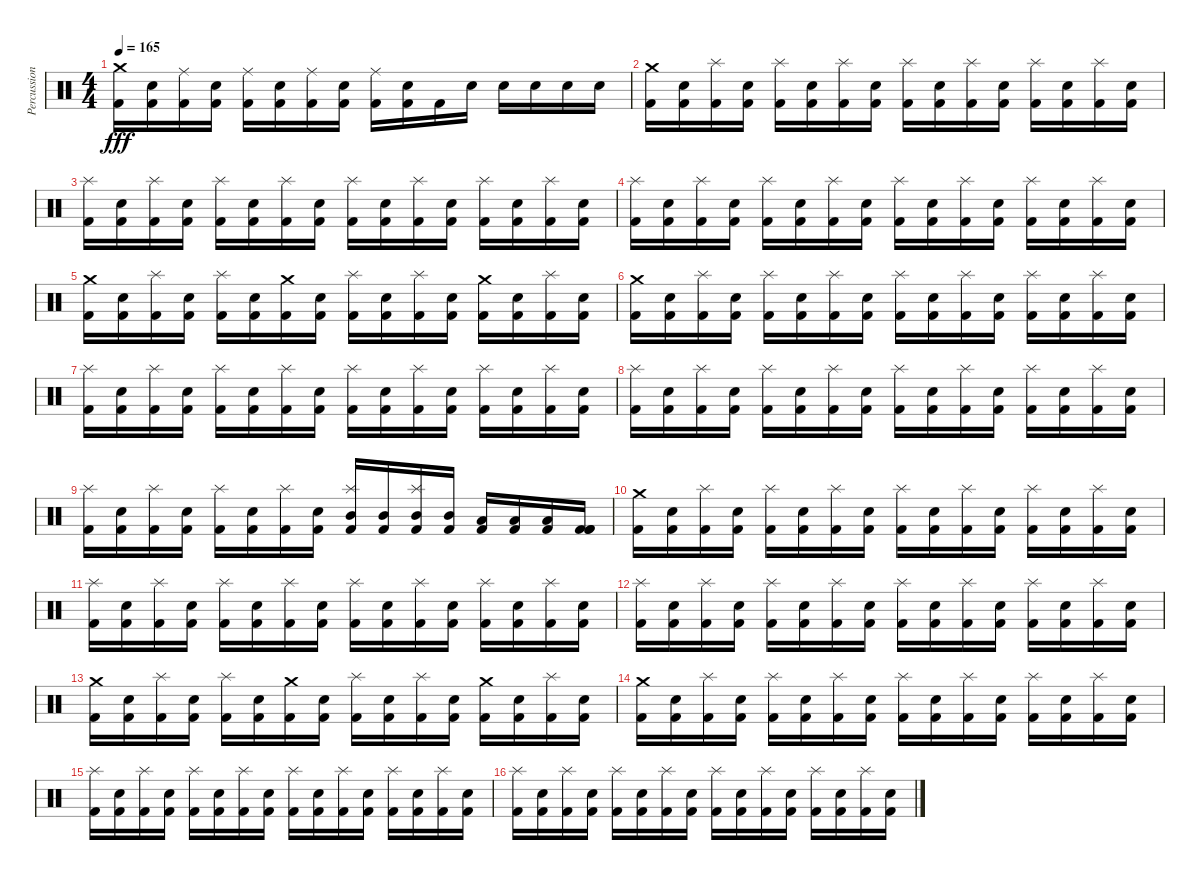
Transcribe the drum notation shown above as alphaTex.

\track ("Percussions" "Percussion") {instrument percussion}
\staff {score}
\articulation defaults
\ts (4 4)
\tempo 165
\clef neutral
\ks c
("Crash medium (hit)" "Kick (hit) 2").16{dy fff} ("Electric Snare (hit)" "Kick (hit) 2").16 ("Ride (middle)" "Kick (hit) 2").16 ("Electric Snare (hit)" "Kick (hit) 2").16 ("Ride (middle)" "Kick (hit) 2").16 ("Electric Snare (hit)" "Kick (hit) 2").16 ("Ride (middle)" "Kick (hit) 2").16 ("Electric Snare (hit)" "Kick (hit) 2").16 ("Ride (middle)" "Kick (hit) 2").16 ("Electric Snare (hit)" "Kick (hit) 2").16 "Kick (hit) 2".16 "Electric Snare (hit)".16 "Electric Snare (hit)".16 "Electric Snare (hit)".16 "Electric Snare (hit)".16 "Electric Snare (hit)".16 |
("Crash medium (hit)" "Kick (hit) 2").16 ("Electric Snare (hit)" "Kick (hit) 2").16 ("Splash (hit)" "Kick (hit) 2").16 ("Electric Snare (hit)" "Kick (hit) 2").16 ("Splash (hit)" "Kick (hit) 2").16 ("Electric Snare (hit)" "Kick (hit) 2").16 ("Splash (hit)" "Kick (hit) 2").16 ("Electric Snare (hit)" "Kick (hit) 2").16 ("Splash (hit)" "Kick (hit) 2").16 ("Electric Snare (hit)" "Kick (hit) 2").16 ("Splash (hit)" "Kick (hit) 2").16 ("Electric Snare (hit)" "Kick (hit) 2").16 ("Splash (hit)" "Kick (hit) 2").16 ("Electric Snare (hit)" "Kick (hit) 2").16 ("Splash (hit)" "Kick (hit) 2").16 ("Electric Snare (hit)" "Kick (hit) 2").16 |
("Splash (hit)" "Kick (hit) 2").16 ("Electric Snare (hit)" "Kick (hit) 2").16 ("Splash (hit)" "Kick (hit) 2").16 ("Electric Snare (hit)" "Kick (hit) 2").16 ("Splash (hit)" "Kick (hit) 2").16 ("Electric Snare (hit)" "Kick (hit) 2").16 ("Splash (hit)" "Kick (hit) 2").16 ("Electric Snare (hit)" "Kick (hit) 2").16 ("Splash (hit)" "Kick (hit) 2").16 ("Electric Snare (hit)" "Kick (hit) 2").16 ("Splash (hit)" "Kick (hit) 2").16 ("Electric Snare (hit)" "Kick (hit) 2").16 ("Splash (hit)" "Kick (hit) 2").16 ("Electric Snare (hit)" "Kick (hit) 2").16 ("Splash (hit)" "Kick (hit) 2").16 ("Electric Snare (hit)" "Kick (hit) 2").16 |
("Splash (hit)" "Kick (hit) 2").16 ("Electric Snare (hit)" "Kick (hit) 2").16 ("Splash (hit)" "Kick (hit) 2").16 ("Electric Snare (hit)" "Kick (hit) 2").16 ("Splash (hit)" "Kick (hit) 2").16 ("Electric Snare (hit)" "Kick (hit) 2").16 ("Splash (hit)" "Kick (hit) 2").16 ("Electric Snare (hit)" "Kick (hit) 2").16 ("Splash (hit)" "Kick (hit) 2").16 ("Electric Snare (hit)" "Kick (hit) 2").16 ("Splash (hit)" "Kick (hit) 2").16 ("Electric Snare (hit)" "Kick (hit) 2").16 ("Splash (hit)" "Kick (hit) 2").16 ("Electric Snare (hit)" "Kick (hit) 2").16 ("Splash (hit)" "Kick (hit) 2").16 ("Electric Snare (hit)" "Kick (hit) 2").16 |
("Crash medium (hit)" "Kick (hit) 2").16 ("Electric Snare (hit)" "Kick (hit) 2").16 ("Splash (hit)" "Kick (hit) 2").16 ("Electric Snare (hit)" "Kick (hit) 2").16 ("Splash (hit)" "Kick (hit) 2").16 ("Electric Snare (hit)" "Kick (hit) 2").16 ("Crash medium (hit)" "Kick (hit) 2").16 ("Electric Snare (hit)" "Kick (hit) 2").16 ("Splash (hit)" "Kick (hit) 2").16 ("Electric Snare (hit)" "Kick (hit) 2").16 ("Splash (hit)" "Kick (hit) 2").16 ("Electric Snare (hit)" "Kick (hit) 2").16 ("Crash medium (hit)" "Kick (hit) 2").16 ("Electric Snare (hit)" "Kick (hit) 2").16 ("Splash (hit)" "Kick (hit) 2").16 ("Electric Snare (hit)" "Kick (hit) 2").16 |
("Crash medium (hit)" "Kick (hit) 2").16 ("Electric Snare (hit)" "Kick (hit) 2").16 ("Splash (hit)" "Kick (hit) 2").16 ("Electric Snare (hit)" "Kick (hit) 2").16 ("Splash (hit)" "Kick (hit) 2").16 ("Electric Snare (hit)" "Kick (hit) 2").16 ("Splash (hit)" "Kick (hit) 2").16 ("Electric Snare (hit)" "Kick (hit) 2").16 ("Splash (hit)" "Kick (hit) 2").16 ("Electric Snare (hit)" "Kick (hit) 2").16 ("Splash (hit)" "Kick (hit) 2").16 ("Electric Snare (hit)" "Kick (hit) 2").16 ("Splash (hit)" "Kick (hit) 2").16 ("Electric Snare (hit)" "Kick (hit) 2").16 ("Splash (hit)" "Kick (hit) 2").16 ("Electric Snare (hit)" "Kick (hit) 2").16 |
("Splash (hit)" "Kick (hit) 2").16 ("Electric Snare (hit)" "Kick (hit) 2").16 ("Splash (hit)" "Kick (hit) 2").16 ("Electric Snare (hit)" "Kick (hit) 2").16 ("Splash (hit)" "Kick (hit) 2").16 ("Electric Snare (hit)" "Kick (hit) 2").16 ("Splash (hit)" "Kick (hit) 2").16 ("Electric Snare (hit)" "Kick (hit) 2").16 ("Splash (hit)" "Kick (hit) 2").16 ("Electric Snare (hit)" "Kick (hit) 2").16 ("Splash (hit)" "Kick (hit) 2").16 ("Electric Snare (hit)" "Kick (hit) 2").16 ("Splash (hit)" "Kick (hit) 2").16 ("Electric Snare (hit)" "Kick (hit) 2").16 ("Splash (hit)" "Kick (hit) 2").16 ("Electric Snare (hit)" "Kick (hit) 2").16 |
("Splash (hit)" "Kick (hit) 2").16 ("Electric Snare (hit)" "Kick (hit) 2").16 ("Splash (hit)" "Kick (hit) 2").16 ("Electric Snare (hit)" "Kick (hit) 2").16 ("Splash (hit)" "Kick (hit) 2").16 ("Electric Snare (hit)" "Kick (hit) 2").16 ("Splash (hit)" "Kick (hit) 2").16 ("Electric Snare (hit)" "Kick (hit) 2").16 ("Splash (hit)" "Kick (hit) 2").16 ("Electric Snare (hit)" "Kick (hit) 2").16 ("Splash (hit)" "Kick (hit) 2").16 ("Electric Snare (hit)" "Kick (hit) 2").16 ("Splash (hit)" "Kick (hit) 2").16 ("Electric Snare (hit)" "Kick (hit) 2").16 ("Splash (hit)" "Kick (hit) 2").16 ("Electric Snare (hit)" "Kick (hit) 2").16 |
("Splash (hit)" "Kick (hit) 2").16 ("Electric Snare (hit)" "Kick (hit) 2").16 ("Splash (hit)" "Kick (hit) 2").16 ("Electric Snare (hit)" "Kick (hit) 2").16 ("Splash (hit)" "Kick (hit) 2").16 ("Electric Snare (hit)" "Kick (hit) 2").16 ("Splash (hit)" "Kick (hit) 2").16 ("Electric Snare (hit)" "Kick (hit) 2").16 ("Splash (hit)" "Mid Tom (hit)" "Kick (hit) 2").16 ("Mid Tom (hit)" "Kick (hit) 2").16 ("Splash (hit)" "Mid Tom (hit)" "Kick (hit) 2").16 ("Mid Tom (hit)" "Kick (hit) 2").16 ("Low Tom (hit)" "Kick (hit) 2").16 ("Low Tom (hit)" "Kick (hit) 2").16 ("Low Tom (hit)" "Kick (hit) 2").16 ("Kick (hit) 2" "Kick (hit) 2" "Kick (hit) 2").16 |
("Crash medium (hit)" "Kick (hit) 2").16 ("Electric Snare (hit)" "Kick (hit) 2").16 ("Splash (hit)" "Kick (hit) 2").16 ("Electric Snare (hit)" "Kick (hit) 2").16 ("Splash (hit)" "Kick (hit) 2").16 ("Electric Snare (hit)" "Kick (hit) 2").16 ("Splash (hit)" "Kick (hit) 2").16 ("Electric Snare (hit)" "Kick (hit) 2").16 ("Splash (hit)" "Kick (hit) 2").16 ("Electric Snare (hit)" "Kick (hit) 2").16 ("Splash (hit)" "Kick (hit) 2").16 ("Electric Snare (hit)" "Kick (hit) 2").16 ("Splash (hit)" "Kick (hit) 2").16 ("Electric Snare (hit)" "Kick (hit) 2").16 ("Splash (hit)" "Kick (hit) 2").16 ("Electric Snare (hit)" "Kick (hit) 2").16 |
("Splash (hit)" "Kick (hit) 2").16 ("Electric Snare (hit)" "Kick (hit) 2").16 ("Splash (hit)" "Kick (hit) 2").16 ("Electric Snare (hit)" "Kick (hit) 2").16 ("Splash (hit)" "Kick (hit) 2").16 ("Electric Snare (hit)" "Kick (hit) 2").16 ("Splash (hit)" "Kick (hit) 2").16 ("Electric Snare (hit)" "Kick (hit) 2").16 ("Splash (hit)" "Kick (hit) 2").16 ("Electric Snare (hit)" "Kick (hit) 2").16 ("Splash (hit)" "Kick (hit) 2").16 ("Electric Snare (hit)" "Kick (hit) 2").16 ("Splash (hit)" "Kick (hit) 2").16 ("Electric Snare (hit)" "Kick (hit) 2").16 ("Splash (hit)" "Kick (hit) 2").16 ("Electric Snare (hit)" "Kick (hit) 2").16 |
("Splash (hit)" "Kick (hit) 2").16 ("Electric Snare (hit)" "Kick (hit) 2").16 ("Splash (hit)" "Kick (hit) 2").16 ("Electric Snare (hit)" "Kick (hit) 2").16 ("Splash (hit)" "Kick (hit) 2").16 ("Electric Snare (hit)" "Kick (hit) 2").16 ("Splash (hit)" "Kick (hit) 2").16 ("Electric Snare (hit)" "Kick (hit) 2").16 ("Splash (hit)" "Kick (hit) 2").16 ("Electric Snare (hit)" "Kick (hit) 2").16 ("Splash (hit)" "Kick (hit) 2").16 ("Electric Snare (hit)" "Kick (hit) 2").16 ("Splash (hit)" "Kick (hit) 2").16 ("Electric Snare (hit)" "Kick (hit) 2").16 ("Splash (hit)" "Kick (hit) 2").16 ("Electric Snare (hit)" "Kick (hit) 2").16 |
("Crash medium (hit)" "Kick (hit) 2").16 ("Electric Snare (hit)" "Kick (hit) 2").16 ("Splash (hit)" "Kick (hit) 2").16 ("Electric Snare (hit)" "Kick (hit) 2").16 ("Splash (hit)" "Kick (hit) 2").16 ("Electric Snare (hit)" "Kick (hit) 2").16 ("Crash medium (hit)" "Kick (hit) 2").16 ("Electric Snare (hit)" "Kick (hit) 2").16 ("Splash (hit)" "Kick (hit) 2").16 ("Electric Snare (hit)" "Kick (hit) 2").16 ("Splash (hit)" "Kick (hit) 2").16 ("Electric Snare (hit)" "Kick (hit) 2").16 ("Crash medium (hit)" "Kick (hit) 2").16 ("Electric Snare (hit)" "Kick (hit) 2").16 ("Splash (hit)" "Kick (hit) 2").16 ("Electric Snare (hit)" "Kick (hit) 2").16 |
("Crash medium (hit)" "Kick (hit) 2").16 ("Electric Snare (hit)" "Kick (hit) 2").16 ("Splash (hit)" "Kick (hit) 2").16 ("Electric Snare (hit)" "Kick (hit) 2").16 ("Splash (hit)" "Kick (hit) 2").16 ("Electric Snare (hit)" "Kick (hit) 2").16 ("Splash (hit)" "Kick (hit) 2").16 ("Electric Snare (hit)" "Kick (hit) 2").16 ("Splash (hit)" "Kick (hit) 2").16 ("Electric Snare (hit)" "Kick (hit) 2").16 ("Splash (hit)" "Kick (hit) 2").16 ("Electric Snare (hit)" "Kick (hit) 2").16 ("Splash (hit)" "Kick (hit) 2").16 ("Electric Snare (hit)" "Kick (hit) 2").16 ("Splash (hit)" "Kick (hit) 2").16 ("Electric Snare (hit)" "Kick (hit) 2").16 |
("Splash (hit)" "Kick (hit) 2").16 ("Electric Snare (hit)" "Kick (hit) 2").16 ("Splash (hit)" "Kick (hit) 2").16 ("Electric Snare (hit)" "Kick (hit) 2").16 ("Splash (hit)" "Kick (hit) 2").16 ("Electric Snare (hit)" "Kick (hit) 2").16 ("Splash (hit)" "Kick (hit) 2").16 ("Electric Snare (hit)" "Kick (hit) 2").16 ("Splash (hit)" "Kick (hit) 2").16 ("Electric Snare (hit)" "Kick (hit) 2").16 ("Splash (hit)" "Kick (hit) 2").16 ("Electric Snare (hit)" "Kick (hit) 2").16 ("Splash (hit)" "Kick (hit) 2").16 ("Electric Snare (hit)" "Kick (hit) 2").16 ("Splash (hit)" "Kick (hit) 2").16 ("Electric Snare (hit)" "Kick (hit) 2").16 |
("Splash (hit)" "Kick (hit) 2").16 ("Electric Snare (hit)" "Kick (hit) 2").16 ("Splash (hit)" "Kick (hit) 2").16 ("Electric Snare (hit)" "Kick (hit) 2").16 ("Splash (hit)" "Kick (hit) 2").16 ("Electric Snare (hit)" "Kick (hit) 2").16 ("Splash (hit)" "Kick (hit) 2").16 ("Electric Snare (hit)" "Kick (hit) 2").16 ("Splash (hit)" "Kick (hit) 2").16 ("Electric Snare (hit)" "Kick (hit) 2").16 ("Splash (hit)" "Kick (hit) 2").16 ("Electric Snare (hit)" "Kick (hit) 2").16 ("Splash (hit)" "Kick (hit) 2").16 ("Electric Snare (hit)" "Kick (hit) 2").16 ("Splash (hit)" "Kick (hit) 2").16 ("Electric Snare (hit)" "Kick (hit) 2").16
